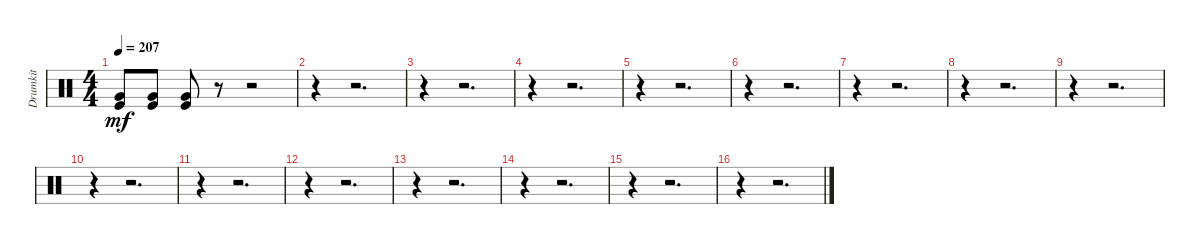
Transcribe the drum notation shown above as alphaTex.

\track ("Drumkit" "Drumkit") {instrument percussion}
\staff {score}
\articulation defaults
\ts (4 4)
\tempo 207
\clef neutral
\ks c
("Kick (hit)" "Very Low Tom (hit)").8{dy mf} ("Very Low Tom (hit)" "Kick (hit)").8 ("Very Low Tom (hit)" "Kick (hit)").8 r.8 r.2 |
r.4 r.2{d} |
r.4 r.2{d} |
r.4 r.2{d} |
r.4 r.2{d} |
r.4 r.2{d} |
r.4 r.2{d} |
r.4 r.2{d} |
r.4 r.2{d} |
r.4 r.2{d} |
r.4 r.2{d} |
r.4 r.2{d} |
r.4 r.2{d} |
r.4 r.2{d} |
r.4 r.2{d} |
r.4 r.2{d}
